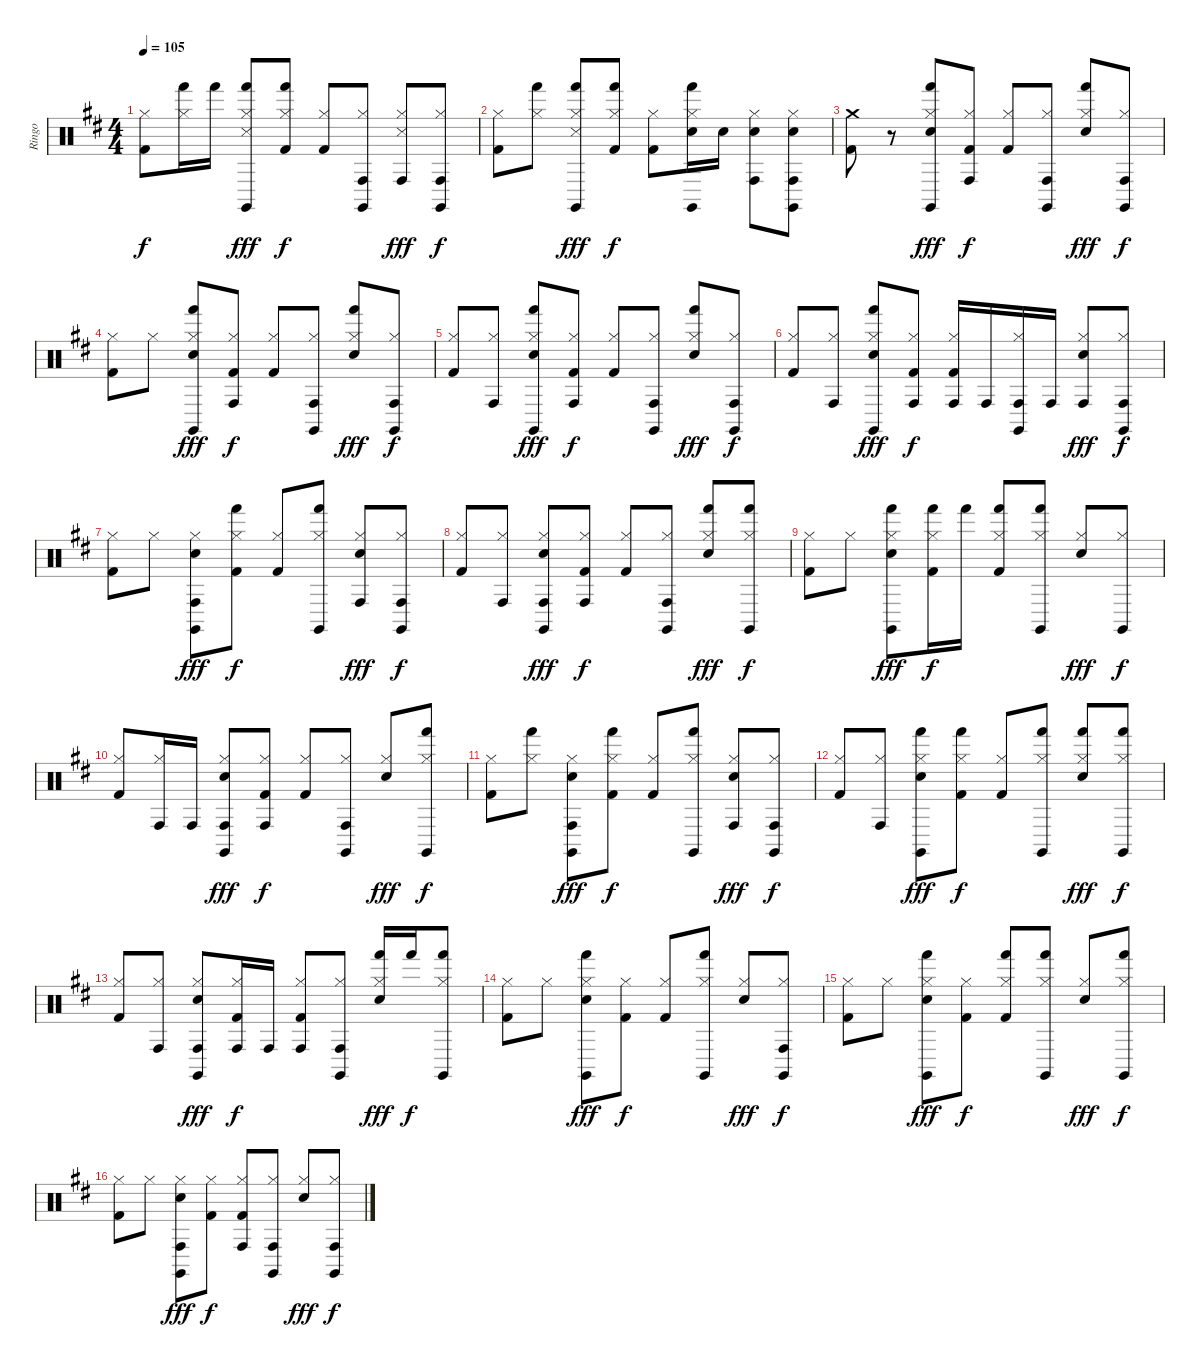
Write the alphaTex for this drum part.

\track ("Ringo" "Ringo") {solo instrument percussion}
\staff {score}
\articulation defaults
\ts (4 4)
\tempo 105
\clef neutral
\ks d
("Kick (hit) 2" "Hi-Hat (closed)").8{dy f} ("Hi-Hat (closed)" "Hand (hit)").16 "Hand (hit)".16 ("Snare (side stick) 3" "Hand (hit)" "Hi-Hat (closed)" "Claves (hit)").8{dy fff} ("Hand (hit)" "Kick (hit) 2" "Hi-Hat (closed)").8{dy f} ("Hi-Hat (closed)" "Kick (hit) 2").8 ("Conga high (hit)" "Hi-Hat (closed)" "Claves (hit)").8 ("Hi-Hat (closed)" "Snare (side stick) 3" "Conga high (hit)").8{dy fff} ("Conga high (hit)" "Hi-Hat (closed)" "Claves (hit)").8{dy f} |
("Kick (hit) 2" "Hi-Hat (closed)").8 ("Hi-Hat (closed)" "Hand (hit)").8 ("Snare (side stick) 3" "Claves (hit)" "Hi-Hat (closed)" "Hand (hit)").8{dy fff} ("Hi-Hat (closed)" "Kick (hit) 2" "Hand (hit)").8{dy f} ("Kick (hit) 2" "Hi-Hat (closed)").8 ("Hand (hit)" "Hi-Hat (closed)" "Snare (hit) 2" "Claves (hit)").16 "Snare (hit) 2".16 ("Hi-Hat (closed)" "Conga high (hit)" "Snare (hit) 2").8 ("Claves (hit)" "Hi-Hat (closed)" "Snare (hit) 2" "Conga high (hit)").8 |
("Kick (hit) 2" "Crash medium (hit)").8 r.8 ("Snare (hit) 2" "Claves (hit)" "Hand (hit)" "Hi-Hat (closed)").8{dy fff} ("Kick (hit) 2" "Hi-Hat (closed)" "Conga high (hit)").8{dy f} ("Kick (hit) 2" "Hi-Hat (closed)").8 ("Claves (hit)" "Hi-Hat (closed)" "Conga high (hit)").8 ("Hi-Hat (closed)" "Hand (hit)" "Snare (hit) 2").8{dy fff} ("Claves (hit)" "Conga high (hit)" "Hi-Hat (closed)").8{dy f} |
("Kick (hit) 2" "Hi-Hat (closed)").8 "Hi-Hat (closed)".8 ("Hand (hit)" "Hi-Hat (closed)" "Snare (hit) 2" "Claves (hit)").8{dy fff} ("Hi-Hat (closed)" "Conga high (hit)" "Kick (hit) 2").8{dy f} ("Hi-Hat (closed)" "Kick (hit) 2").8 ("Conga high (hit)" "Claves (hit)" "Hi-Hat (closed)").8 ("Snare (hit) 2" "Hi-Hat (closed)" "Hand (hit)").8{dy fff} ("Claves (hit)" "Hi-Hat (closed)" "Conga high (hit)").8{dy f} |
("Hi-Hat (closed)" "Kick (hit) 2").8 ("Conga high (hit)" "Hi-Hat (closed)").8 ("Hi-Hat (closed)" "Snare (hit) 2" "Hand (hit)" "Claves (hit)").8{dy fff} ("Hi-Hat (closed)" "Kick (hit) 2" "Conga high (hit)").8{dy f} ("Hi-Hat (closed)" "Kick (hit) 2").8 ("Claves (hit)" "Hi-Hat (closed)" "Conga high (hit)").8 ("Hi-Hat (closed)" "Hand (hit)" "Snare (hit) 2").8{dy fff} ("Conga high (hit)" "Claves (hit)" "Hi-Hat (closed)").8{dy f} |
("Kick (hit) 2" "Hi-Hat (closed)").8 ("Conga high (hit)" "Hi-Hat (closed)").8 ("Hand (hit)" "Claves (hit)" "Hi-Hat (closed)" "Snare (hit) 2").8{dy fff} ("Hi-Hat (closed)" "Conga high (hit)" "Kick (hit) 2").8{dy f} ("Hi-Hat (closed)" "Kick (hit) 2" "Conga high (hit)").16 "Conga high (hit)".16 ("Claves (hit)" "Hi-Hat (closed)" "Conga high (hit)").16 "Conga high (hit)".16 ("Conga high (hit)" "Hi-Hat (closed)" "Snare (hit) 2").8{dy fff} ("Claves (hit)" "Hi-Hat (closed)" "Conga high (hit)").8{dy f} |
("Kick (hit) 2" "Hi-Hat (closed)").8 "Hi-Hat (closed)".8 ("Hi-Hat (closed)" "Claves (hit)" "Snare (hit) 2" "Conga high (hit)").8{dy fff} ("Hand (hit)" "Kick (hit) 2" "Hi-Hat (closed)").8{dy f} ("Hi-Hat (closed)" "Kick (hit) 2").8 ("Claves (hit)" "Hi-Hat (closed)" "Hand (hit)").8 ("Conga high (hit)" "Snare (hit) 2" "Hi-Hat (closed)").8{dy fff} ("Claves (hit)" "Hi-Hat (closed)" "Conga high (hit)").8{dy f} |
("Hi-Hat (closed)" "Kick (hit) 2").8 ("Conga high (hit)" "Hi-Hat (closed)").8 ("Snare (hit) 2" "Hi-Hat (closed)" "Claves (hit)" "Conga high (hit)").8{dy fff} ("Kick (hit) 2" "Conga high (hit)" "Hi-Hat (closed)").8{dy f} ("Kick (hit) 2" "Hi-Hat (closed)").8 ("Hi-Hat (closed)" "Claves (hit)" "Conga high (hit)").8 ("Hi-Hat (closed)" "Snare (hit) 2" "Hand (hit)").8{dy fff} ("Hi-Hat (closed)" "Hand (hit)" "Claves (hit)").8{dy f} |
("Kick (hit) 2" "Hi-Hat (closed)").8 "Hi-Hat (closed)".8 ("Hand (hit)" "Claves (hit)" "Hi-Hat (closed)" "Snare (hit) 2").8{dy fff} ("Hand (hit)" "Hi-Hat (closed)" "Kick (hit) 2").16{dy f} "Hand (hit)".16 ("Hand (hit)" "Hi-Hat (closed)" "Kick (hit) 2").8 ("Hi-Hat (closed)" "Hand (hit)" "Claves (hit)").8 ("Snare (hit) 2" "Hi-Hat (closed)").8{dy fff} ("Hi-Hat (closed)" "Claves (hit)").8{dy f} |
("Hi-Hat (closed)" "Kick (hit) 2").8 ("Hi-Hat (closed)" "Conga high (hit)").16 "Conga high (hit)".16 ("Hi-Hat (closed)" "Claves (hit)" "Snare (hit) 2" "Conga high (hit)").8{dy fff} ("Conga high (hit)" "Kick (hit) 2" "Hi-Hat (closed)").8{dy f} ("Kick (hit) 2" "Hi-Hat (closed)").8 ("Claves (hit)" "Conga high (hit)" "Hi-Hat (closed)").8 ("Hi-Hat (closed)" "Snare (hit) 2").8{dy fff} ("Claves (hit)" "Hi-Hat (closed)" "Hand (hit)").8{dy f} |
("Hi-Hat (closed)" "Kick (hit) 2").8 ("Hi-Hat (closed)" "Hand (hit)").8 ("Snare (hit) 2" "Hi-Hat (closed)" "Conga high (hit)" "Claves (hit)").8{dy fff} ("Hand (hit)" "Hi-Hat (closed)" "Kick (hit) 2").8{dy f} ("Kick (hit) 2" "Hi-Hat (closed)").8 ("Claves (hit)" "Hand (hit)" "Hi-Hat (closed)").8 ("Conga high (hit)" "Snare (hit) 2" "Hi-Hat (closed)").8{dy fff} ("Claves (hit)" "Hi-Hat (closed)" "Conga high (hit)").8{dy f} |
("Hi-Hat (closed)" "Kick (hit) 2").8 ("Conga high (hit)" "Hi-Hat (closed)").8 ("Snare (hit) 2" "Hi-Hat (closed)" "Claves (hit)" "Hand (hit)").8{dy fff} ("Hand (hit)" "Hi-Hat (closed)" "Kick (hit) 2").8{dy f} ("Kick (hit) 2" "Hi-Hat (closed)").8 ("Hi-Hat (closed)" "Hand (hit)" "Claves (hit)").8 ("Snare (hit) 2" "Hi-Hat (closed)" "Hand (hit)").8{dy fff} ("Hi-Hat (closed)" "Claves (hit)" "Hand (hit)").8{dy f} |
("Kick (hit) 2" "Hi-Hat (closed)").8 ("Hi-Hat (closed)" "Conga high (hit)").8 ("Hi-Hat (closed)" "Snare (hit) 2" "Conga high (hit)" "Claves (hit)").8{dy fff} ("Kick (hit) 2" "Conga high (hit)" "Hi-Hat (closed)").16{dy f} "Conga high (hit)".16 ("Hi-Hat (closed)" "Kick (hit) 2" "Conga high (hit)").8 ("Conga high (hit)" "Claves (hit)" "Hi-Hat (closed)").8 ("Hi-Hat (closed)" "Hand (hit)" "Snare (hit) 2").16{dy fff} "Hand (hit)".16{dy f} ("Claves (hit)" "Hi-Hat (closed)" "Hand (hit)").8 |
("Kick (hit) 2" "Hi-Hat (closed)").8 "Hi-Hat (closed)".8 ("Claves (hit)" "Snare (hit) 2" "Hand (hit)" "Hi-Hat (closed)").8{dy fff} ("Kick (hit) 2" "Hi-Hat (closed)").8{dy f} ("Hi-Hat (closed)" "Kick (hit) 2").8 ("Hand (hit)" "Claves (hit)" "Hi-Hat (closed)").8 ("Hi-Hat (closed)" "Snare (hit) 2").8{dy fff} ("Hi-Hat (closed)" "Conga high (hit)" "Claves (hit)").8{dy f} |
("Kick (hit) 2" "Hi-Hat (closed)").8 "Hi-Hat (closed)".8 ("Snare (hit) 2" "Hand (hit)" "Claves (hit)" "Hi-Hat (closed)").8{dy fff} ("Kick (hit) 2" "Hi-Hat (closed)").8{dy f} ("Hand (hit)" "Hi-Hat (closed)" "Kick (hit) 2").8 ("Hand (hit)" "Hi-Hat (closed)" "Claves (hit)").8 ("Hi-Hat (closed)" "Snare (hit) 2").8{dy fff} ("Claves (hit)" "Hi-Hat (closed)" "Hand (hit)").8{dy f} |
("Kick (hit) 2" "Hi-Hat (closed)").8 "Hi-Hat (closed)".8 ("Hi-Hat (closed)" "Claves (hit)" "Snare (hit) 2" "Conga high (hit)").8{dy fff} ("Kick (hit) 2" "Hi-Hat (closed)").8{dy f} ("Conga high (hit)" "Kick (hit) 2" "Hi-Hat (closed)").8 ("Hi-Hat (closed)" "Claves (hit)" "Conga high (hit)").8 ("Hi-Hat (closed)" "Snare (hit) 2").8{dy fff} ("Hi-Hat (closed)" "Claves (hit)" "Conga high (hit)").8{dy f}
